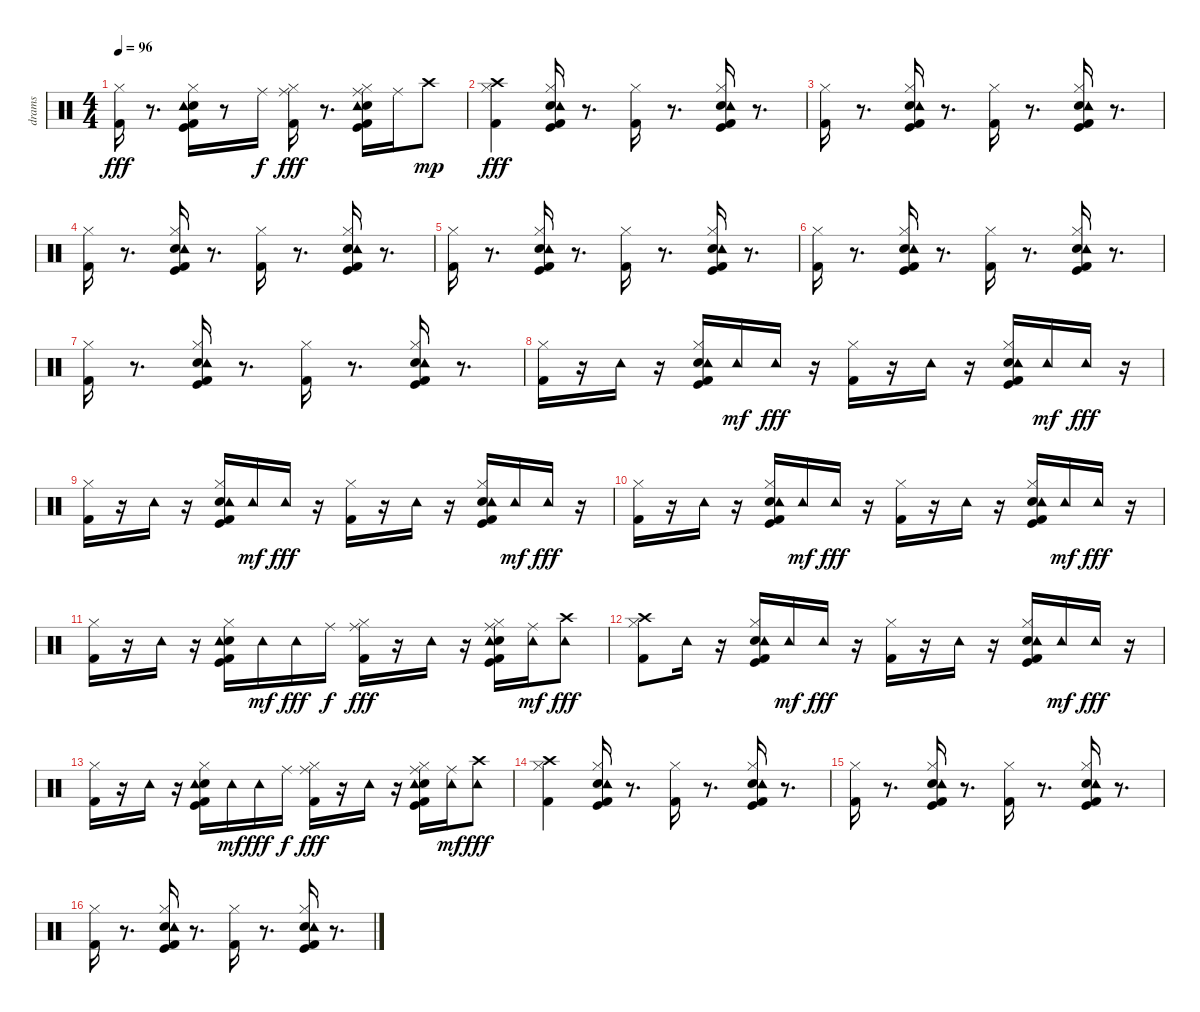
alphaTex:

\track ("drams" "drams") {instrument percussion}
\staff {score}
\articulation defaults
\ts (4 4)
\tempo 96
\clef neutral
\ks c
("Kick (hit) 2" "Hi-Hat (closed)").16{dy fff} r.8{d} ("Kick (hit)" "Kick (hit) 2" "Electric Snare (hit)" "Hi-Hat (closed)" "Tambourine (hit)").16 r.8 "Ride (middle)".16{dy f} ("Kick (hit) 2" "Hi-Hat (closed)" "Ride (middle)").16{dy fff} r.8{d} ("Kick (hit)" "Kick (hit) 2" "Electric Snare (hit)" "Hi-Hat (closed)" "Ride (middle)" "Tambourine (hit)").16 "Ride (middle)".16 "Crash high (hit)".8{dy mp} |
("Kick (hit) 2" "Hi-Hat (closed)" "Crash high (hit)").4{dy fff} ("Kick (hit)" "Kick (hit) 2" "Electric Snare (hit)" "Hi-Hat (closed)" "Tambourine (hit)").16 r.8{d} ("Kick (hit) 2" "Hi-Hat (closed)").16 r.8{d} ("Kick (hit)" "Kick (hit) 2" "Electric Snare (hit)" "Hi-Hat (closed)" "Tambourine (hit)").16 r.8{d} |
("Kick (hit) 2" "Hi-Hat (closed)").16 r.8{d} ("Kick (hit)" "Kick (hit) 2" "Electric Snare (hit)" "Hi-Hat (closed)" "Tambourine (hit)").16 r.8{d} ("Kick (hit) 2" "Hi-Hat (closed)").16 r.8{d} ("Kick (hit)" "Kick (hit) 2" "Electric Snare (hit)" "Hi-Hat (closed)" "Tambourine (hit)").16 r.8{d} |
("Kick (hit) 2" "Hi-Hat (closed)").16 r.8{d} ("Kick (hit)" "Kick (hit) 2" "Electric Snare (hit)" "Hi-Hat (closed)" "Tambourine (hit)").16 r.8{d} ("Kick (hit) 2" "Hi-Hat (closed)").16 r.8{d} ("Kick (hit)" "Kick (hit) 2" "Electric Snare (hit)" "Hi-Hat (closed)" "Tambourine (hit)").16 r.8{d} |
("Kick (hit) 2" "Hi-Hat (closed)").16 r.8{d} ("Kick (hit)" "Kick (hit) 2" "Electric Snare (hit)" "Hi-Hat (closed)" "Tambourine (hit)").16 r.8{d} ("Kick (hit) 2" "Hi-Hat (closed)").16 r.8{d} ("Kick (hit)" "Kick (hit) 2" "Electric Snare (hit)" "Hi-Hat (closed)" "Tambourine (hit)").16 r.8{d} |
("Kick (hit) 2" "Hi-Hat (closed)").16 r.8{d} ("Kick (hit)" "Kick (hit) 2" "Electric Snare (hit)" "Hi-Hat (closed)" "Tambourine (hit)").16 r.8{d} ("Kick (hit) 2" "Hi-Hat (closed)").16 r.8{d} ("Kick (hit)" "Kick (hit) 2" "Electric Snare (hit)" "Hi-Hat (closed)" "Tambourine (hit)").16 r.8{d} |
("Kick (hit) 2" "Hi-Hat (closed)").16 r.8{d} ("Kick (hit)" "Kick (hit) 2" "Electric Snare (hit)" "Hi-Hat (closed)" "Tambourine (hit)").16 r.8{d} ("Kick (hit) 2" "Hi-Hat (closed)").16 r.8{d} ("Kick (hit)" "Kick (hit) 2" "Electric Snare (hit)" "Hi-Hat (closed)" "Tambourine (hit)").16 r.8{d} |
("Kick (hit) 2" "Hi-Hat (closed)").16 r.16 "Tambourine (hit)".16 r.16 ("Kick (hit)" "Kick (hit) 2" "Electric Snare (hit)" "Hi-Hat (closed)" "Tambourine (hit)").16 "Tambourine (hit)".16{dy mf} "Tambourine (hit)".16{dy fff} r.16 ("Kick (hit) 2" "Hi-Hat (closed)").16 r.16 "Tambourine (hit)".16 r.16 ("Kick (hit)" "Kick (hit) 2" "Electric Snare (hit)" "Hi-Hat (closed)" "Tambourine (hit)").16 "Tambourine (hit)".16{dy mf} "Tambourine (hit)".16{dy fff} r.16 |
("Kick (hit) 2" "Hi-Hat (closed)").16 r.16 "Tambourine (hit)".16 r.16 ("Kick (hit)" "Kick (hit) 2" "Electric Snare (hit)" "Hi-Hat (closed)" "Tambourine (hit)").16 "Tambourine (hit)".16{dy mf} "Tambourine (hit)".16{dy fff} r.16 ("Kick (hit) 2" "Hi-Hat (closed)").16 r.16 "Tambourine (hit)".16 r.16 ("Kick (hit)" "Kick (hit) 2" "Electric Snare (hit)" "Hi-Hat (closed)" "Tambourine (hit)").16 "Tambourine (hit)".16{dy mf} "Tambourine (hit)".16{dy fff} r.16 |
("Kick (hit) 2" "Hi-Hat (closed)").16 r.16 "Tambourine (hit)".16 r.16 ("Kick (hit)" "Kick (hit) 2" "Electric Snare (hit)" "Hi-Hat (closed)" "Tambourine (hit)").16 "Tambourine (hit)".16{dy mf} "Tambourine (hit)".16{dy fff} r.16 ("Kick (hit) 2" "Hi-Hat (closed)").16 r.16 "Tambourine (hit)".16 r.16 ("Kick (hit)" "Kick (hit) 2" "Electric Snare (hit)" "Hi-Hat (closed)" "Tambourine (hit)").16 "Tambourine (hit)".16{dy mf} "Tambourine (hit)".16{dy fff} r.16 |
("Kick (hit) 2" "Hi-Hat (closed)").16 r.16 "Tambourine (hit)".16 r.16 ("Kick (hit)" "Kick (hit) 2" "Electric Snare (hit)" "Hi-Hat (closed)" "Tambourine (hit)").16 "Tambourine (hit)".16{dy mf} "Tambourine (hit)".16{dy fff} "Ride (middle)".16{dy f} ("Kick (hit) 2" "Hi-Hat (closed)" "Ride (middle)").16{dy fff} r.16 "Tambourine (hit)".16 r.16 ("Kick (hit)" "Kick (hit) 2" "Electric Snare (hit)" "Hi-Hat (closed)" "Ride (middle)" "Tambourine (hit)").16 ("Ride (middle)" "Tambourine (hit)").16{dy mf} ("Crash high (hit)" "Tambourine (hit)").8{dy fff} |
("Kick (hit) 2" "Hi-Hat (closed)" "Crash high (hit)").8 "Tambourine (hit)".16 r.16 ("Kick (hit)" "Kick (hit) 2" "Electric Snare (hit)" "Hi-Hat (closed)" "Tambourine (hit)").16 "Tambourine (hit)".16{dy mf} "Tambourine (hit)".16{dy fff} r.16 ("Kick (hit) 2" "Hi-Hat (closed)").16 r.16 "Tambourine (hit)".16 r.16 ("Kick (hit)" "Kick (hit) 2" "Electric Snare (hit)" "Hi-Hat (closed)" "Tambourine (hit)").16 "Tambourine (hit)".16{dy mf} "Tambourine (hit)".16{dy fff} r.16 |
("Kick (hit) 2" "Hi-Hat (closed)").16 r.16 "Tambourine (hit)".16 r.16 ("Kick (hit)" "Kick (hit) 2" "Electric Snare (hit)" "Hi-Hat (closed)" "Tambourine (hit)").16 "Tambourine (hit)".16{dy mf} "Tambourine (hit)".16{dy fff} "Ride (middle)".16{dy f} ("Kick (hit) 2" "Hi-Hat (closed)" "Ride (middle)").16{dy fff} r.16 "Tambourine (hit)".16 r.16 ("Kick (hit)" "Kick (hit) 2" "Electric Snare (hit)" "Hi-Hat (closed)" "Ride (middle)" "Tambourine (hit)").16 ("Ride (middle)" "Tambourine (hit)").16{dy mf} ("Crash high (hit)" "Tambourine (hit)").8{dy fff} |
("Kick (hit) 2" "Hi-Hat (closed)" "Crash high (hit)").4 ("Kick (hit)" "Kick (hit) 2" "Electric Snare (hit)" "Hi-Hat (closed)" "Tambourine (hit)").16 r.8{d} ("Kick (hit) 2" "Hi-Hat (closed)").16 r.8{d} ("Kick (hit)" "Kick (hit) 2" "Electric Snare (hit)" "Hi-Hat (closed)" "Tambourine (hit)").16 r.8{d} |
("Kick (hit) 2" "Hi-Hat (closed)").16 r.8{d} ("Kick (hit)" "Kick (hit) 2" "Electric Snare (hit)" "Hi-Hat (closed)" "Tambourine (hit)").16 r.8{d} ("Kick (hit) 2" "Hi-Hat (closed)").16 r.8{d} ("Kick (hit)" "Kick (hit) 2" "Electric Snare (hit)" "Hi-Hat (closed)" "Tambourine (hit)").16 r.8{d} |
("Kick (hit) 2" "Hi-Hat (closed)").16 r.8{d} ("Kick (hit)" "Kick (hit) 2" "Electric Snare (hit)" "Hi-Hat (closed)" "Tambourine (hit)").16 r.8{d} ("Kick (hit) 2" "Hi-Hat (closed)").16 r.8{d} ("Kick (hit)" "Kick (hit) 2" "Electric Snare (hit)" "Hi-Hat (closed)" "Tambourine (hit)").16 r.8{d}
